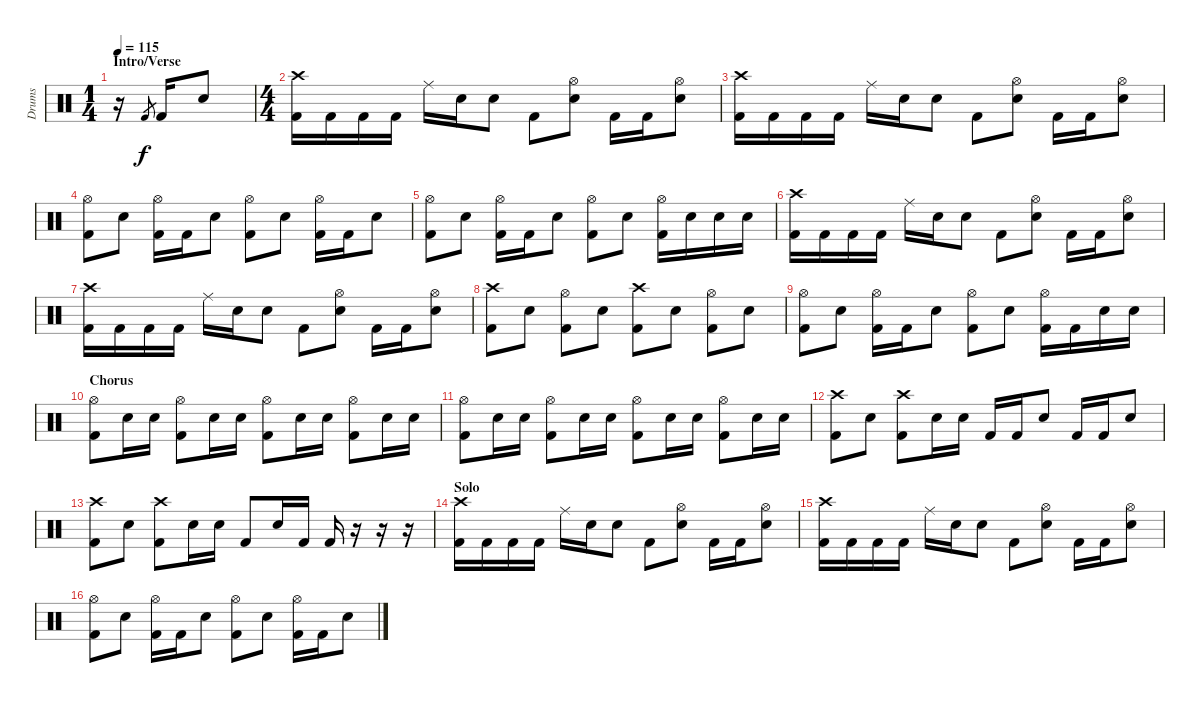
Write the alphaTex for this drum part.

\track ("Drums" "Drums") {instrument percussion}
\staff {score}
\articulation defaults
\ts (1 4)
\section ("" "Intro/Verse")
\tempo 115
\clef neutral
\ks c
r.16{dy f} "Kick (hit) 2".8{gr} "Kick (hit) 2".16 "Electric Snare (hit)".8 |
\ts (4 4)
("Crash high (hit)" "Kick (hit) 2").16 "Kick (hit) 2".16 "Kick (hit) 2".16 "Kick (hit) 2".16 "Ride (middle)".16 "Electric Snare (hit)".16 "Snare (hit) 2".8 "Kick (hit) 2".8 ("Hi-Hat (open)" "Electric Snare (hit)").8 "Kick (hit) 2".16 "Kick (hit) 2".16 ("Hi-Hat (open)" "Electric Snare (hit)").8 |
("Crash high (hit)" "Kick (hit) 2").16 "Kick (hit) 2".16 "Kick (hit) 2".16 "Kick (hit) 2".16 "Ride (middle)".16 "Electric Snare (hit)".16 "Snare (hit) 2".8 "Kick (hit) 2".8 ("Hi-Hat (open)" "Electric Snare (hit)").8 "Kick (hit) 2".16 "Kick (hit) 2".16 ("Hi-Hat (open)" "Electric Snare (hit)").8 |
("Hi-Hat (open)" "Kick (hit) 2").8 "Electric Snare (hit)".8 ("Hi-Hat (open)" "Kick (hit) 2").16 "Kick (hit) 2".16 "Electric Snare (hit)".8 ("Hi-Hat (open)" "Kick (hit) 2").8 "Electric Snare (hit)".8 ("Hi-Hat (open)" "Kick (hit) 2").16 "Kick (hit) 2".16 "Electric Snare (hit)".8 |
("Hi-Hat (open)" "Kick (hit) 2").8 "Electric Snare (hit)".8 ("Hi-Hat (open)" "Kick (hit) 2").16 "Kick (hit) 2".16 "Electric Snare (hit)".8 ("Hi-Hat (open)" "Kick (hit) 2").8 "Electric Snare (hit)".8 ("Hi-Hat (open)" "Kick (hit) 2").16 "Electric Snare (hit)".16 "Electric Snare (hit)".16 "Electric Snare (hit)".16 |
("Crash high (hit)" "Kick (hit) 2").16 "Kick (hit) 2".16 "Kick (hit) 2".16 "Kick (hit) 2".16 "Ride (middle)".16 "Electric Snare (hit)".16 "Snare (hit) 2".8 "Kick (hit) 2".8 ("Hi-Hat (open)" "Electric Snare (hit)").8 "Kick (hit) 2".16 "Kick (hit) 2".16 ("Hi-Hat (open)" "Electric Snare (hit)").8 |
("Crash high (hit)" "Kick (hit) 2").16 "Kick (hit) 2".16 "Kick (hit) 2".16 "Kick (hit) 2".16 "Ride (middle)".16 "Electric Snare (hit)".16 "Snare (hit) 2".8 "Kick (hit) 2".8 ("Hi-Hat (open)" "Electric Snare (hit)").8 "Kick (hit) 2".16 "Kick (hit) 2".16 ("Hi-Hat (open)" "Electric Snare (hit)").8 |
("Crash high (hit)" "Kick (hit) 2").8 "Electric Snare (hit)".8 ("Hi-Hat (open)" "Kick (hit) 2").8 "Electric Snare (hit)".8 ("Crash high (hit)" "Kick (hit) 2").8 "Electric Snare (hit)".8 ("Hi-Hat (open)" "Kick (hit) 2").8 "Electric Snare (hit)".8 |
("Hi-Hat (open)" "Kick (hit) 2").8 "Electric Snare (hit)".8 ("Hi-Hat (open)" "Kick (hit) 2").16 "Kick (hit) 2".16 "Electric Snare (hit)".8 ("Hi-Hat (open)" "Kick (hit) 2").8 "Electric Snare (hit)".8 ("Hi-Hat (open)" "Kick (hit) 2").16 "Kick (hit) 2".16 "Electric Snare (hit)".16 "Electric Snare (hit)".16 |
\section ("" "Chorus")
("Hi-Hat (open)" "Kick (hit) 2").8 "Electric Snare (hit)".16 "Electric Snare (hit)".16 ("Hi-Hat (open)" "Kick (hit) 2").8 "Electric Snare (hit)".16 "Electric Snare (hit)".16 ("Hi-Hat (open)" "Kick (hit) 2").8 "Electric Snare (hit)".16 "Electric Snare (hit)".16 ("Hi-Hat (open)" "Kick (hit) 2").8 "Electric Snare (hit)".16 "Electric Snare (hit)".16 |
("Hi-Hat (open)" "Kick (hit) 2").8 "Electric Snare (hit)".16 "Electric Snare (hit)".16 ("Hi-Hat (open)" "Kick (hit) 2").8 "Electric Snare (hit)".16 "Electric Snare (hit)".16 ("Hi-Hat (open)" "Kick (hit) 2").8 "Electric Snare (hit)".16 "Electric Snare (hit)".16 ("Hi-Hat (open)" "Kick (hit) 2").8 "Electric Snare (hit)".16 "Electric Snare (hit)".16 |
("Crash high (hit)" "Kick (hit) 2").8 "Electric Snare (hit)".8 ("Crash high (hit)" "Kick (hit) 2").8 "Electric Snare (hit)".16 "Electric Snare (hit)".16 "Kick (hit) 2".16 "Kick (hit) 2".16 "Electric Snare (hit)".8 "Kick (hit) 2".16 "Kick (hit) 2".16 "Electric Snare (hit)".8 |
("Crash high (hit)" "Kick (hit) 2").8 "Electric Snare (hit)".8 ("Crash high (hit)" "Kick (hit) 2").8 "Electric Snare (hit)".16 "Electric Snare (hit)".16 "Kick (hit) 2".8 "Electric Snare (hit)".16 "Kick (hit) 2".16 "Kick (hit) 2".16 r.16 r.16 r.16 |
\section ("" "Solo")
("Crash high (hit)" "Kick (hit) 2").16 "Kick (hit) 2".16 "Kick (hit) 2".16 "Kick (hit) 2".16 "Ride (middle)".16 "Electric Snare (hit)".16 "Snare (hit) 2".8 "Kick (hit) 2".8 ("Hi-Hat (open)" "Electric Snare (hit)").8 "Kick (hit) 2".16 "Kick (hit) 2".16 ("Hi-Hat (open)" "Electric Snare (hit)").8 |
("Crash high (hit)" "Kick (hit) 2").16 "Kick (hit) 2".16 "Kick (hit) 2".16 "Kick (hit) 2".16 "Ride (middle)".16 "Electric Snare (hit)".16 "Snare (hit) 2".8 "Kick (hit) 2".8 ("Hi-Hat (open)" "Electric Snare (hit)").8 "Kick (hit) 2".16 "Kick (hit) 2".16 ("Hi-Hat (open)" "Electric Snare (hit)").8 |
("Hi-Hat (open)" "Kick (hit) 2").8 "Electric Snare (hit)".8 ("Hi-Hat (open)" "Kick (hit) 2").16 "Kick (hit) 2".16 "Electric Snare (hit)".8 ("Hi-Hat (open)" "Kick (hit) 2").8 "Electric Snare (hit)".8 ("Hi-Hat (open)" "Kick (hit) 2").16 "Kick (hit) 2".16 "Electric Snare (hit)".8
